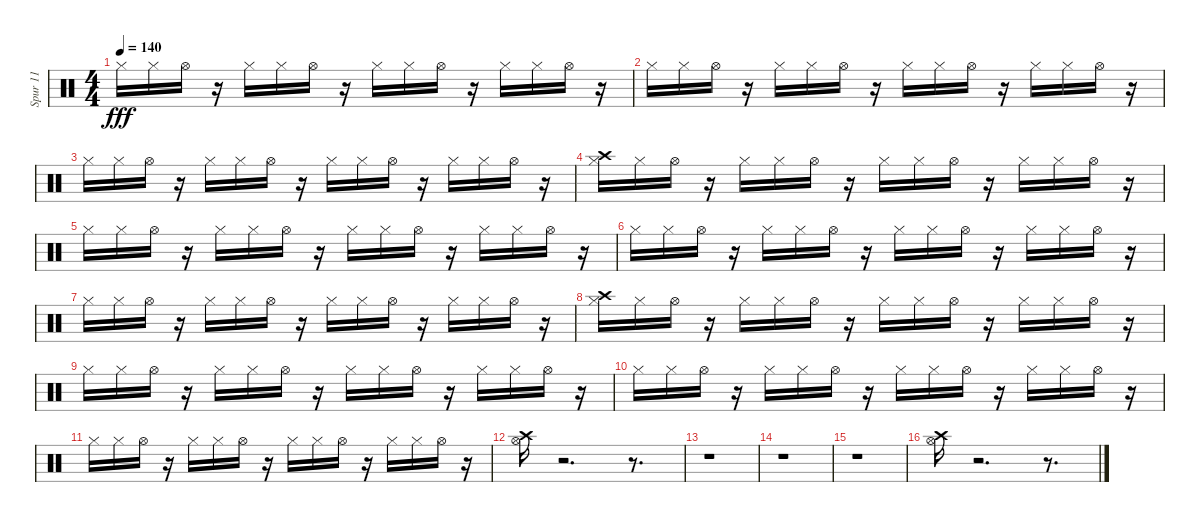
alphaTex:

\track ("Spur 11" "Spur 11") {instrument percussion}
\staff {score}
\articulation defaults
\ts (4 4)
\tempo 140
\clef neutral
\ks c "Hi-Hat (closed)".16{dy fff} "Hi-Hat (closed)".16 "Hi-Hat (open)".16
r.16 "Hi-Hat (closed)".16 "Hi-Hat (closed)".16 "Hi-Hat (open)".16 r.16 "Hi-Hat (closed)".16 "Hi-Hat (closed)".16 "Hi-Hat (open)".16 r.16 "Hi-Hat (closed)".16 "Hi-Hat (closed)".16 "Hi-Hat (open)".16 r.16 |
"Hi-Hat (closed)".16 "Hi-Hat (closed)".16 "Hi-Hat (open)".16 r.16 "Hi-Hat (closed)".16 "Hi-Hat (closed)".16 "Hi-Hat (open)".16 r.16 "Hi-Hat (closed)".16 "Hi-Hat (closed)".16 "Hi-Hat (open)".16 r.16 "Hi-Hat (closed)".16 "Hi-Hat (closed)".16 "Hi-Hat (open)".16 r.16 |
"Hi-Hat (closed)".16 "Hi-Hat (closed)".16 "Hi-Hat (open)".16 r.16 "Hi-Hat (closed)".16 "Hi-Hat (closed)".16 "Hi-Hat (open)".16 r.16 "Hi-Hat (closed)".16 "Hi-Hat (closed)".16 "Hi-Hat (open)".16 r.16 "Hi-Hat (closed)".16 "Hi-Hat (closed)".16 "Hi-Hat (open)".16 r.16 |
("Hi-Hat (closed)" "Crash high (hit)").16 "Hi-Hat (closed)".16 "Hi-Hat (open)".16 r.16 "Hi-Hat (closed)".16 "Hi-Hat (closed)".16 "Hi-Hat (open)".16 r.16 "Hi-Hat (closed)".16 "Hi-Hat (closed)".16 "Hi-Hat (open)".16 r.16 "Hi-Hat (closed)".16 "Hi-Hat (closed)".16 "Hi-Hat (open)".16 r.16 |
"Hi-Hat (closed)".16 "Hi-Hat (closed)".16 "Hi-Hat (open)".16 r.16 "Hi-Hat (closed)".16 "Hi-Hat (closed)".16 "Hi-Hat (open)".16 r.16 "Hi-Hat (closed)".16 "Hi-Hat (closed)".16 "Hi-Hat (open)".16 r.16 "Hi-Hat (closed)".16 "Hi-Hat (closed)".16 "Hi-Hat (open)".16 r.16 |
"Hi-Hat (closed)".16 "Hi-Hat (closed)".16 "Hi-Hat (open)".16 r.16 "Hi-Hat (closed)".16 "Hi-Hat (closed)".16 "Hi-Hat (open)".16 r.16 "Hi-Hat (closed)".16 "Hi-Hat (closed)".16 "Hi-Hat (open)".16 r.16 "Hi-Hat (closed)".16 "Hi-Hat (closed)".16 "Hi-Hat (open)".16 r.16 |
"Hi-Hat (closed)".16 "Hi-Hat (closed)".16 "Hi-Hat (open)".16 r.16 "Hi-Hat (closed)".16 "Hi-Hat (closed)".16 "Hi-Hat (open)".16 r.16 "Hi-Hat (closed)".16 "Hi-Hat (closed)".16 "Hi-Hat (open)".16 r.16 "Hi-Hat (closed)".16 "Hi-Hat (closed)".16 "Hi-Hat (open)".16 r.16 |
("Hi-Hat (closed)" "Crash high (hit)").16 "Hi-Hat (closed)".16 "Hi-Hat (open)".16 r.16 "Hi-Hat (closed)".16 "Hi-Hat (closed)".16 "Hi-Hat (open)".16 r.16 "Hi-Hat (closed)".16 "Hi-Hat (closed)".16 "Hi-Hat (open)".16 r.16 "Hi-Hat (closed)".16 "Hi-Hat (closed)".16 "Hi-Hat (open)".16 r.16 |
"Hi-Hat (closed)".16 "Hi-Hat (closed)".16 "Hi-Hat (open)".16 r.16 "Hi-Hat (closed)".16 "Hi-Hat (closed)".16 "Hi-Hat (open)".16 r.16 "Hi-Hat (closed)".16 "Hi-Hat (closed)".16 "Hi-Hat (open)".16 r.16 "Hi-Hat (closed)".16 "Hi-Hat (closed)".16 "Hi-Hat (open)".16 r.16 |
"Hi-Hat (closed)".16 "Hi-Hat (closed)".16 "Hi-Hat (open)".16 r.16 "Hi-Hat (closed)".16 "Hi-Hat (closed)".16 "Hi-Hat (open)".16 r.16 "Hi-Hat (closed)".16 "Hi-Hat (closed)".16 "Hi-Hat (open)".16 r.16 "Hi-Hat (closed)".16 "Hi-Hat (closed)".16 "Hi-Hat (open)".16 r.16 |
"Hi-Hat (closed)".16 "Hi-Hat (closed)".16 "Hi-Hat (open)".16 r.16 "Hi-Hat (closed)".16 "Hi-Hat (closed)".16 "Hi-Hat (open)".16 r.16 "Hi-Hat (closed)".16 "Hi-Hat (closed)".16 "Hi-Hat (open)".16 r.16 "Hi-Hat (closed)".16 "Hi-Hat (closed)".16 "Hi-Hat (open)".16 r.16 |
("Crash high (hit)" "Hi-Hat (open)").16 r.2{d} r.8{d} |
r.1 |
r.1 |
r.1 |
("Hi-Hat (open)" "Crash high (hit)").16 r.2{d} r.8{d}
